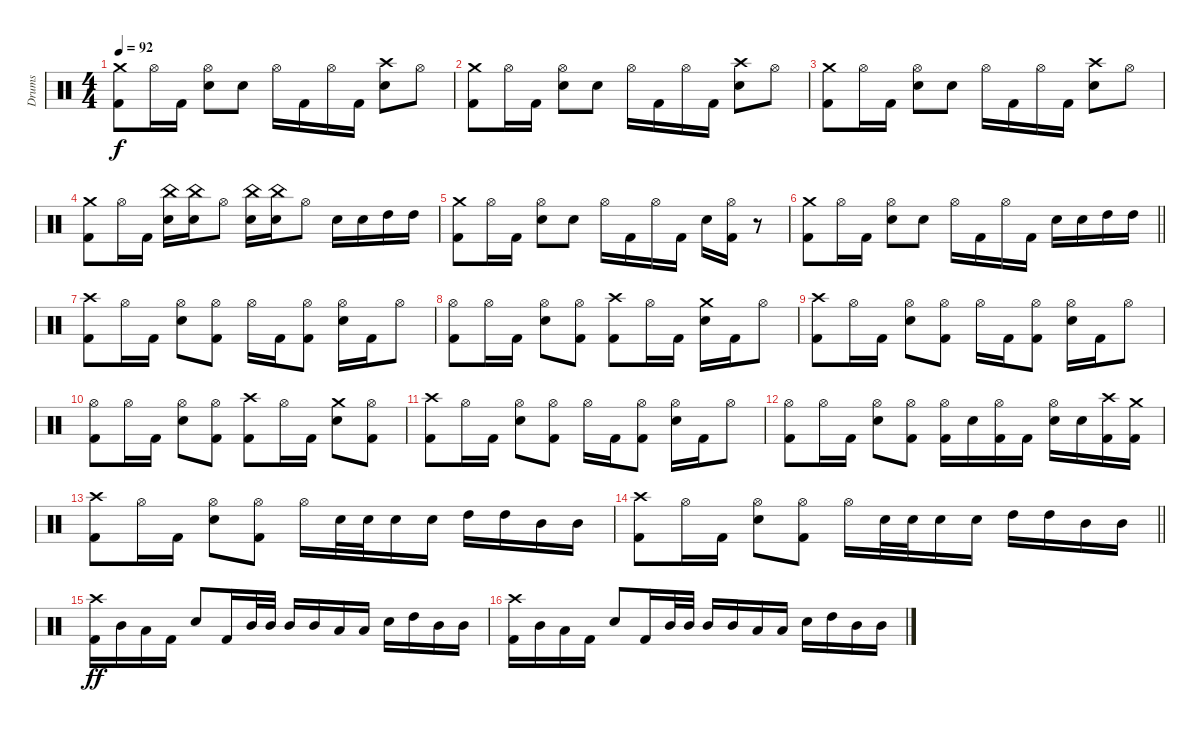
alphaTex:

\track ("Drums" "Drums") {instrument percussion}
\staff {score}
\articulation defaults
\ts (4 4)
\tempo 92
\clef neutral
\ks c
("Crash medium (hit)" "Kick (hit) 2").8{dy f} "Hi-Hat (open)".16 "Kick (hit) 2".16 ("Hi-Hat (open)" "Snare (hit) 2").8 "Snare (hit) 2".8 "Hi-Hat (open)".16 "Kick (hit) 2".16 "Hi-Hat (open)".16 "Kick (hit) 2".16 ("Crash high (hit)" "Snare (hit) 2").8 "Hi-Hat (open)".8 |
("Crash medium (hit)" "Kick (hit) 2").8 "Hi-Hat (open)".16 "Kick (hit) 2".16 ("Hi-Hat (open)" "Snare (hit) 2").8 "Snare (hit) 2".8 "Hi-Hat (open)".16 "Kick (hit) 2".16 "Hi-Hat (open)".16 "Kick (hit) 2".16 ("Crash high (hit)" "Snare (hit) 2").8 "Hi-Hat (open)".8 |
("Crash medium (hit)" "Kick (hit) 2").8 "Hi-Hat (open)".16 "Kick (hit) 2".16 ("Hi-Hat (open)" "Snare (hit) 2").8 "Snare (hit) 2".8 "Hi-Hat (open)".16 "Kick (hit) 2".16 "Hi-Hat (open)".16 "Kick (hit) 2".16 ("Crash high (hit)" "Snare (hit) 2").8 "Hi-Hat (open)".8 |
("Crash medium (hit)" "Kick (hit) 2").8 "Hi-Hat (open)".16 "Kick (hit) 2".16 ("China (hit)" "Snare (hit) 2").16 ("China (hit)" "Snare (hit) 2").16 "Hi-Hat (open)".8 ("China (hit)" "Snare (hit) 2").16 ("China (hit)" "Snare (hit) 2").16 "Hi-Hat (open)".8 "Snare (hit) 2".16 "Snare (hit) 2".16 "High Tom (hit)".16 "High Tom (hit)".16 |
("Crash medium (hit)" "Kick (hit) 2").8 "Hi-Hat (open)".16 "Kick (hit) 2".16 ("Hi-Hat (open)" "Snare (hit) 2").8 "Snare (hit) 2".8 "Hi-Hat (open)".16 "Kick (hit) 2".16 "Hi-Hat (open)".16 "Kick (hit) 2".16 "Snare (hit) 2".16 ("Hi-Hat (open)" "Kick (hit) 2").16 r.8 |
\barLineRight lightlight
("Crash medium (hit)" "Kick (hit) 2").8 "Hi-Hat (open)".16 "Kick (hit) 2".16 ("Hi-Hat (open)" "Snare (hit) 2").8 "Snare (hit) 2".8 "Hi-Hat (open)".16 "Kick (hit) 2".16 "Hi-Hat (open)".16 "Kick (hit) 2".16 "Snare (hit) 2".16 "Snare (hit) 2".16 "High Tom (hit)".16 "High Tom (hit)".16 |
("Crash high (hit)" "Kick (hit) 2").8 "Hi-Hat (open)".16 "Kick (hit) 2".16 ("Hi-Hat (open)" "Snare (hit) 2").8 ("Hi-Hat (open)" "Kick (hit) 2").8 "Hi-Hat (open)".16 "Kick (hit) 2".16 ("Hi-Hat (open)" "Kick (hit) 2").8 ("Hi-Hat (open)" "Snare (hit) 2").16 "Kick (hit) 2".16 "Hi-Hat (open)".8 |
("Hi-Hat (open)" "Kick (hit) 2").8 "Hi-Hat (open)".16 "Kick (hit) 2".16 ("Hi-Hat (open)" "Snare (hit) 2").8 ("Hi-Hat (open)" "Kick (hit) 2").8 ("Crash high (hit)" "Kick (hit) 2").8 "Hi-Hat (open)".16 "Kick (hit) 2".16 ("Crash medium (hit)" "Snare (hit) 2").16 "Kick (hit) 2".16 "Hi-Hat (open)".8 |
("Crash high (hit)" "Kick (hit) 2").8 "Hi-Hat (open)".16 "Kick (hit) 2".16 ("Hi-Hat (open)" "Snare (hit) 2").8 ("Hi-Hat (open)" "Kick (hit) 2").8 "Hi-Hat (open)".16 "Kick (hit) 2".16 ("Hi-Hat (open)" "Kick (hit) 2").8 ("Hi-Hat (open)" "Snare (hit) 2").16 "Kick (hit) 2".16 "Hi-Hat (open)".8 |
("Hi-Hat (open)" "Kick (hit) 2").8 "Hi-Hat (open)".16 "Kick (hit) 2".16 ("Hi-Hat (open)" "Snare (hit) 2").8 ("Hi-Hat (open)" "Kick (hit) 2").8 ("Crash high (hit)" "Kick (hit) 2").8 "Hi-Hat (open)".16 "Kick (hit) 2".16 ("Crash medium (hit)" "Snare (hit) 2").8 ("Hi-Hat (open)" "Kick (hit) 2").8 |
("Crash high (hit)" "Kick (hit) 2").8 "Hi-Hat (open)".16 "Kick (hit) 2".16 ("Hi-Hat (open)" "Snare (hit) 2").8 ("Hi-Hat (open)" "Kick (hit) 2").8 "Hi-Hat (open)".16 "Kick (hit) 2".16 ("Hi-Hat (open)" "Kick (hit) 2").8 ("Hi-Hat (open)" "Snare (hit) 2").16 "Kick (hit) 2".16 "Hi-Hat (open)".8 |
("Hi-Hat (open)" "Kick (hit) 2").8 "Hi-Hat (open)".16 "Kick (hit) 2".16 ("Hi-Hat (open)" "Snare (hit) 2").8 ("Hi-Hat (open)" "Kick (hit) 2").8 ("Hi-Hat (open)" "Kick (hit) 2").16 "Snare (hit) 2".16 ("Hi-Hat (open)" "Kick (hit) 2").16 "Kick (hit) 2".16 ("Hi-Hat (open)" "Snare (hit) 2").16 "Snare (hit) 2".16 ("Crash high (hit)" "Kick (hit) 2").16 ("Crash medium (hit)" "Kick (hit) 2").16 |
("Crash high (hit)" "Kick (hit) 2").8 "Hi-Hat (open)".16 "Kick (hit) 2".16 ("Hi-Hat (open)" "Snare (hit) 2").8 ("Hi-Hat (open)" "Kick (hit) 2").8 "Hi-Hat (open)".16 "Snare (hit) 2".32 "Snare (hit) 2".32 "Snare (hit) 2".16 "Snare (hit) 2".16 "High Tom (hit)".16 "High Tom (hit)".16 "Mid Tom (hit)".16 "Mid Tom (hit)".16 |
\barLineRight lightlight
("Crash high (hit)" "Kick (hit) 2").8 "Hi-Hat (open)".16 "Kick (hit) 2".16 ("Hi-Hat (open)" "Snare (hit) 2").8 ("Hi-Hat (open)" "Kick (hit) 2").8 "Hi-Hat (open)".16 "Snare (hit) 2".32 "Snare (hit) 2".32 "Snare (hit) 2".16 "Snare (hit) 2".16 "High Tom (hit)".16 "High Tom (hit)".16 "Mid Tom (hit)".16 "Mid Tom (hit)".16 |
("Crash high (hit)" "Kick (hit) 2").16{dy ff} "Mid Tom (hit)".16 "Low Floor Tom (hit)".16 "Kick (hit) 2".16 "Snare (hit) 2".8 "Kick (hit) 2".16 "Mid Tom (hit)".32 "Mid Tom (hit)".32 "Mid Tom (hit)".16 "Mid Tom (hit)".16 "Low Floor Tom (hit)".16 "Low Floor Tom (hit)".16 "Snare (hit) 2".16 "High Tom (hit)".16 "Mid Tom (hit)".16 "Mid Tom (hit)".16 |
("Crash high (hit)" "Kick (hit) 2").16 "Mid Tom (hit)".16 "Low Floor Tom (hit)".16 "Kick (hit) 2".16 "Snare (hit) 2".8 "Kick (hit) 2".16 "Mid Tom (hit)".32 "Mid Tom (hit)".32 "Mid Tom (hit)".16 "Mid Tom (hit)".16 "Low Floor Tom (hit)".16 "Low Floor Tom (hit)".16 "Snare (hit) 2".16 "High Tom (hit)".16 "Mid Tom (hit)".16 "Mid Tom (hit)".16
